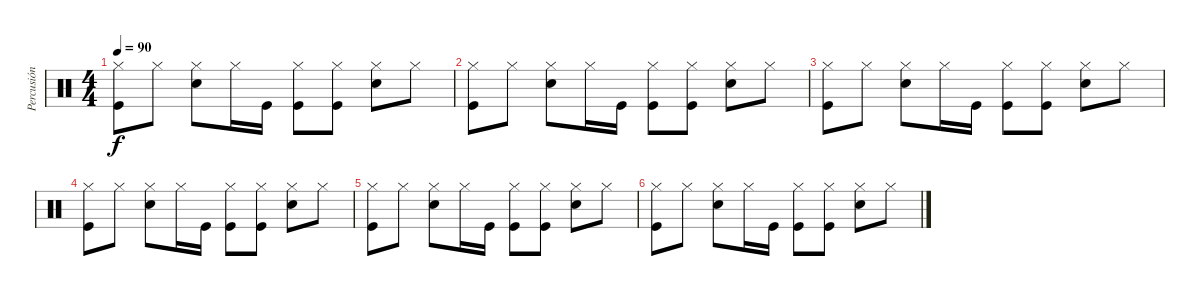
\track ("Percusión" "Percusión") {instrument percussion}
\staff {score}
\articulation defaults
\ts (4 4)
\tempo 90
\clef neutral
\ks c
("Hi-Hat (closed)" "Kick (hit)").8{dy f} "Hi-Hat (closed)".8 ("Hi-Hat (closed)" "Snare (hit) 2").8 "Hi-Hat (closed)".16 "Kick (hit)".16 ("Hi-Hat (closed)" "Kick (hit)").8 ("Hi-Hat (closed)" "Kick (hit)").8 ("Hi-Hat (closed)" "Snare (hit) 2").8 "Hi-Hat (closed)".8 |
("Hi-Hat (closed)" "Kick (hit)").8 "Hi-Hat (closed)".8 ("Hi-Hat (closed)" "Snare (hit) 2").8 "Hi-Hat (closed)".16 "Kick (hit)".16 ("Hi-Hat (closed)" "Kick (hit)").8 ("Hi-Hat (closed)" "Kick (hit)").8 ("Hi-Hat (closed)" "Snare (hit) 2").8 "Hi-Hat (closed)".8 |
("Hi-Hat (closed)" "Kick (hit)").8 "Hi-Hat (closed)".8 ("Hi-Hat (closed)" "Snare (hit) 2").8 "Hi-Hat (closed)".16 "Kick (hit)".16 ("Hi-Hat (closed)" "Kick (hit)").8 ("Hi-Hat (closed)" "Kick (hit)").8 ("Hi-Hat (closed)" "Snare (hit) 2").8 "Hi-Hat (closed)".8 |
("Hi-Hat (closed)" "Kick (hit)").8 "Hi-Hat (closed)".8 ("Hi-Hat (closed)" "Snare (hit) 2").8 "Hi-Hat (closed)".16 "Kick (hit)".16 ("Hi-Hat (closed)" "Kick (hit)").8 ("Hi-Hat (closed)" "Kick (hit)").8 ("Hi-Hat (closed)" "Snare (hit) 2").8 "Hi-Hat (closed)".8 |
("Hi-Hat (closed)" "Kick (hit)").8 "Hi-Hat (closed)".8 ("Hi-Hat (closed)" "Snare (hit) 2").8 "Hi-Hat (closed)".16 "Kick (hit)".16 ("Hi-Hat (closed)" "Kick (hit)").8 ("Hi-Hat (closed)" "Kick (hit)").8 ("Hi-Hat (closed)" "Snare (hit) 2").8 "Hi-Hat (closed)".8 |
("Hi-Hat (closed)" "Kick (hit)").8 "Hi-Hat (closed)".8 ("Hi-Hat (closed)" "Snare (hit) 2").8 "Hi-Hat (closed)".16 "Kick (hit)".16 ("Hi-Hat (closed)" "Kick (hit)").8 ("Hi-Hat (closed)" "Kick (hit)").8 ("Hi-Hat (closed)" "Snare (hit) 2").8 "Hi-Hat (closed)".8
